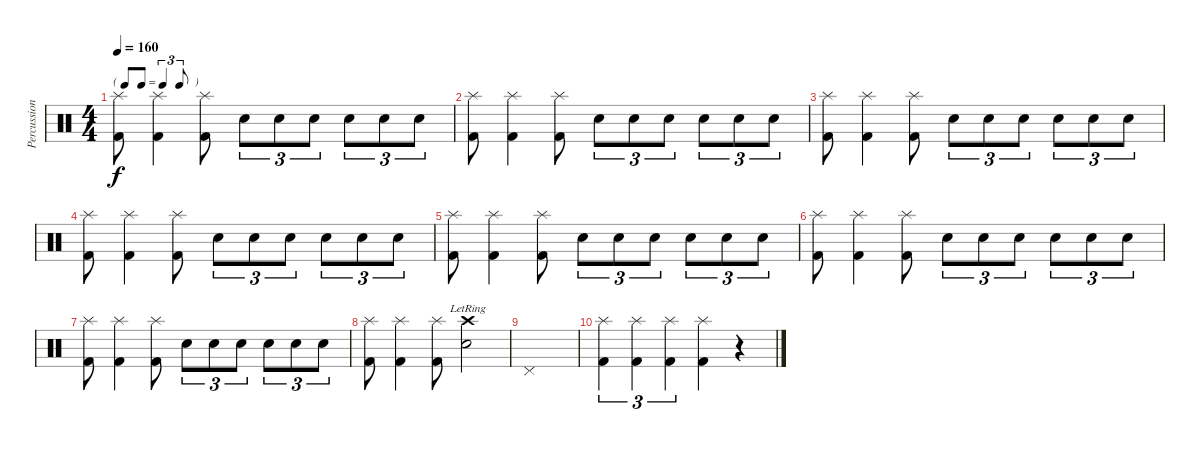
\track ("Percussion" "Percussion") {instrument percussion}
\staff {score}
\articulation defaults
\ts (4 4)
\tf triplet8th
\tempo 160
\clef neutral
\ks c
("Kick (hit) 2" "Splash (hit)").8{dy f} ("Kick (hit) 2" "Splash (hit)").4 ("Kick (hit) 2" "Splash (hit)").8 "Snare (hit) 2".8{tu (3 2)} "Snare (hit) 2".8{tu (3 2)} "Snare (hit) 2".8{tu (3 2)} "Snare (hit) 2".8{tu (3 2)} "Snare (hit) 2".8{tu (3 2)} "Snare (hit) 2".8{tu (3 2)} |
("Kick (hit) 2" "Splash (hit)").8 ("Kick (hit) 2" "Splash (hit)").4 ("Kick (hit) 2" "Splash (hit)").8 "Snare (hit) 2".8{tu (3 2)} "Snare (hit) 2".8{tu (3 2)} "Snare (hit) 2".8{tu (3 2)} "Snare (hit) 2".8{tu (3 2)} "Snare (hit) 2".8{tu (3 2)} "Snare (hit) 2".8{tu (3 2)} |
("Kick (hit) 2" "Splash (hit)").8 ("Kick (hit) 2" "Splash (hit)").4 ("Kick (hit) 2" "Splash (hit)").8 "Snare (hit) 2".8{tu (3 2)} "Snare (hit) 2".8{tu (3 2)} "Snare (hit) 2".8{tu (3 2)} "Snare (hit) 2".8{tu (3 2)} "Snare (hit) 2".8{tu (3 2)} "Snare (hit) 2".8{tu (3 2)} |
("Kick (hit) 2" "Splash (hit)").8 ("Kick (hit) 2" "Splash (hit)").4 ("Kick (hit) 2" "Splash (hit)").8 "Snare (hit) 2".8{tu (3 2)} "Snare (hit) 2".8{tu (3 2)} "Snare (hit) 2".8{tu (3 2)} "Snare (hit) 2".8{tu (3 2)} "Snare (hit) 2".8{tu (3 2)} "Snare (hit) 2".8{tu (3 2)} |
("Kick (hit) 2" "Splash (hit)").8 ("Kick (hit) 2" "Splash (hit)").4 ("Kick (hit) 2" "Splash (hit)").8 "Snare (hit) 2".8{tu (3 2)} "Snare (hit) 2".8{tu (3 2)} "Snare (hit) 2".8{tu (3 2)} "Snare (hit) 2".8{tu (3 2)} "Snare (hit) 2".8{tu (3 2)} "Snare (hit) 2".8{tu (3 2)} |
("Kick (hit) 2" "Splash (hit)").8 ("Kick (hit) 2" "Splash (hit)").4 ("Kick (hit) 2" "Splash (hit)").8 "Snare (hit) 2".8{tu (3 2)} "Snare (hit) 2".8{tu (3 2)} "Snare (hit) 2".8{tu (3 2)} "Snare (hit) 2".8{tu (3 2)} "Snare (hit) 2".8{tu (3 2)} "Snare (hit) 2".8{tu (3 2)} |
("Kick (hit) 2" "Splash (hit)").8 ("Kick (hit) 2" "Splash (hit)").4 ("Kick (hit) 2" "Splash (hit)").8 "Snare (hit) 2".8{tu (3 2)} "Snare (hit) 2".8{tu (3 2)} "Snare (hit) 2".8{tu (3 2)} "Snare (hit) 2".8{tu (3 2)} "Snare (hit) 2".8{tu (3 2)} "Snare (hit) 2".8{tu (3 2)} |
("Kick (hit) 2" "Splash (hit)").8 ("Kick (hit) 2" "Splash (hit)").4 ("Kick (hit) 2" "Splash (hit)").8 ("Snare (hit) 2" "Crash high (hit)"{lr}).2 |
"Pedal Hi-Hat (hit)".1 |
("Kick (hit) 2" "Splash (hit)").4{tu (3 2)} ("Kick (hit) 2" "Splash (hit)").4{tu (3 2)} ("Kick (hit) 2" "Splash (hit)").4{tu (3 2)} ("Kick (hit) 2" "Splash (hit)").4 r.4
